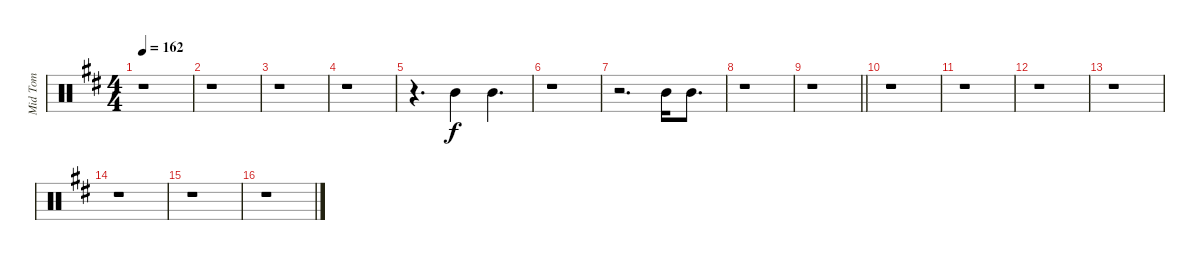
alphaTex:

\track ("Mid Tom" "Mid Tom") {instrument percussion}
\staff {score}
\articulation defaults
\ts (4 4)
\tempo 162
\clef neutral
\ks bminor
r.1{dy f} |
r.1 |
r.1 |
r.1 |
r.4{d} "Mid Tom (hit)".4 "Mid Tom (hit)".4{d} |
r.1 |
r.2{d} "Mid Tom (hit)".16 "Mid Tom (hit)".8{d} |
r.1 |
\barLineRight lightlight
r.1 |
r.1 |
r.1 |
r.1 |
r.1 |
r.1 |
r.1 |
r.1
